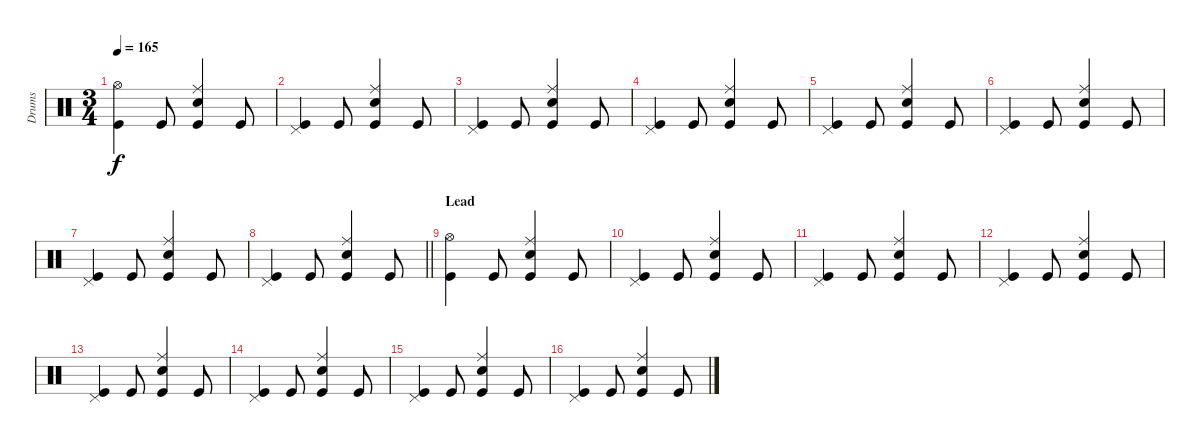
\track ("Drums" "Drums") {instrument percussion}
\staff {score}
\articulation defaults
\ts (3 4)
\tempo 165
\clef neutral
\ks c
("Hi-Hat (open)" "Kick (hit)").4{dy f} "Kick (hit)".8 ("Ride (middle)" "Snare (hit) 2" "Kick (hit)").4 "Kick (hit)".8 |
("Pedal Hi-Hat (hit)" "Kick (hit)").4 "Kick (hit)".8 ("Ride (middle)" "Snare (hit) 2" "Kick (hit)").4 "Kick (hit)".8 |
("Pedal Hi-Hat (hit)" "Kick (hit)").4 "Kick (hit)".8 ("Ride (middle)" "Snare (hit) 2" "Kick (hit)").4 "Kick (hit)".8 |
("Pedal Hi-Hat (hit)" "Kick (hit)").4 "Kick (hit)".8 ("Ride (middle)" "Snare (hit) 2" "Kick (hit)").4 "Kick (hit)".8 |
("Pedal Hi-Hat (hit)" "Kick (hit)").4 "Kick (hit)".8 ("Ride (middle)" "Snare (hit) 2" "Kick (hit)").4 "Kick (hit)".8 |
("Pedal Hi-Hat (hit)" "Kick (hit)").4 "Kick (hit)".8 ("Ride (middle)" "Snare (hit) 2" "Kick (hit)").4 "Kick (hit)".8 |
("Pedal Hi-Hat (hit)" "Kick (hit)").4 "Kick (hit)".8 ("Ride (middle)" "Snare (hit) 2" "Kick (hit)").4 "Kick (hit)".8 |
\barLineRight lightlight
("Pedal Hi-Hat (hit)" "Kick (hit)").4 "Kick (hit)".8 ("Ride (middle)" "Snare (hit) 2" "Kick (hit)").4 "Kick (hit)".8 |
\section ("" "Lead")
("Hi-Hat (open)" "Kick (hit)").4 "Kick (hit)".8 ("Ride (middle)" "Snare (hit) 2" "Kick (hit)").4 "Kick (hit)".8 |
("Pedal Hi-Hat (hit)" "Kick (hit)").4 "Kick (hit)".8 ("Ride (middle)" "Snare (hit) 2" "Kick (hit)").4 "Kick (hit)".8 |
("Pedal Hi-Hat (hit)" "Kick (hit)").4 "Kick (hit)".8 ("Ride (middle)" "Snare (hit) 2" "Kick (hit)").4 "Kick (hit)".8 |
("Pedal Hi-Hat (hit)" "Kick (hit)").4 "Kick (hit)".8 ("Ride (middle)" "Snare (hit) 2" "Kick (hit)").4 "Kick (hit)".8 |
("Pedal Hi-Hat (hit)" "Kick (hit)").4 "Kick (hit)".8 ("Ride (middle)" "Snare (hit) 2" "Kick (hit)").4 "Kick (hit)".8 |
("Pedal Hi-Hat (hit)" "Kick (hit)").4 "Kick (hit)".8 ("Ride (middle)" "Snare (hit) 2" "Kick (hit)").4 "Kick (hit)".8 |
("Pedal Hi-Hat (hit)" "Kick (hit)").4 "Kick (hit)".8 ("Ride (middle)" "Snare (hit) 2" "Kick (hit)").4 "Kick (hit)".8 |
("Pedal Hi-Hat (hit)" "Kick (hit)").4 "Kick (hit)".8 ("Ride (middle)" "Snare (hit) 2" "Kick (hit)").4 "Kick (hit)".8
